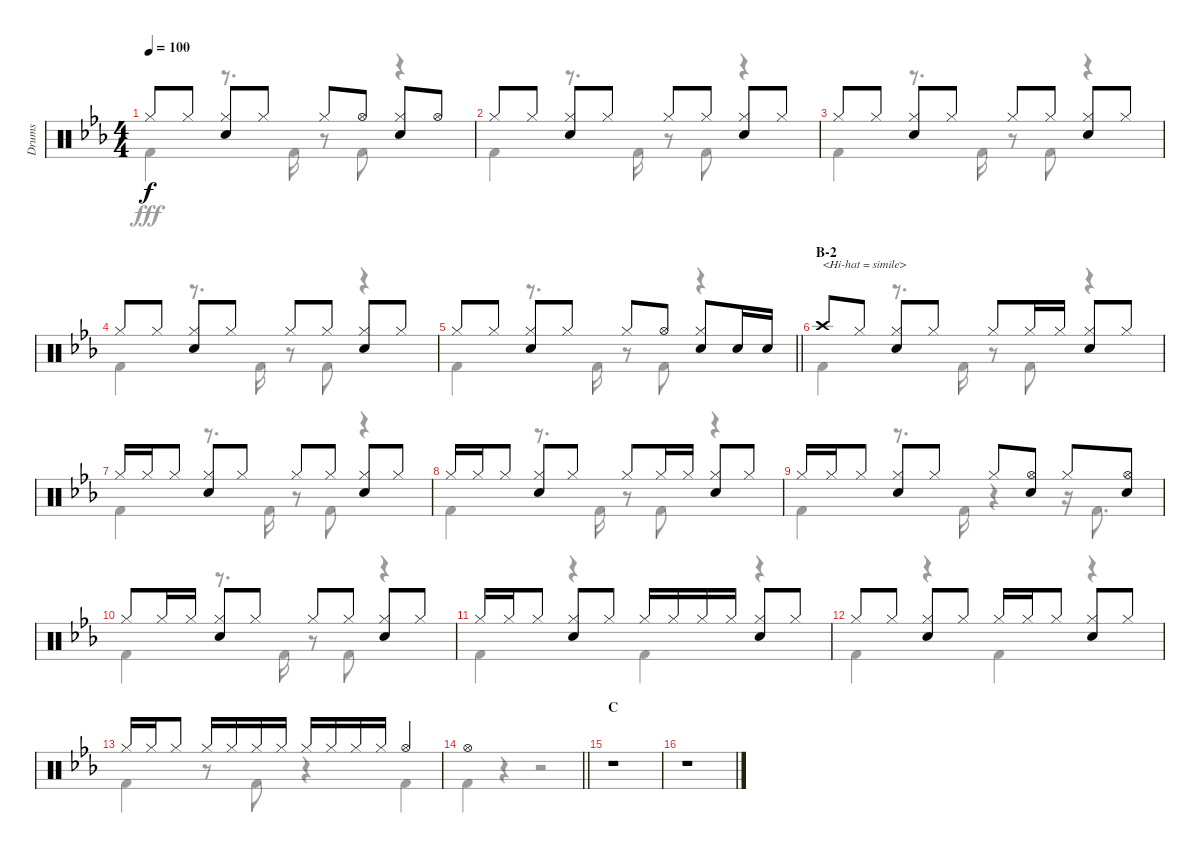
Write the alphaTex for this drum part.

\track ("Drums" "Drums") {instrument percussion}
\staff {score}
\articulation defaults
\voice
\ts (4 4)
\tempo 100
\clef neutral
\ks eb "Hi-Hat (closed)".8{dy f} "Hi-Hat (closed)".8
("Hi-Hat (closed)" "Snare (hit) 2").8 "Hi-Hat (closed)".8 "Hi-Hat (closed)".8 "Hi-Hat (open)".8 ("Hi-Hat (closed)" "Snare (hit) 2").8 "Hi-Hat (open)".8 |
"Hi-Hat (closed)".8 "Hi-Hat (closed)".8 ("Hi-Hat (closed)" "Snare (hit) 2").8 "Hi-Hat (closed)".8 "Hi-Hat (closed)".8 "Hi-Hat (closed)".8 ("Hi-Hat (closed)" "Snare (hit) 2").8 "Hi-Hat (closed)".8 |
"Hi-Hat (closed)".8 "Hi-Hat (closed)".8 ("Hi-Hat (closed)" "Snare (hit) 2").8 "Hi-Hat (closed)".8 "Hi-Hat (closed)".8 "Hi-Hat (closed)".8 ("Hi-Hat (closed)" "Snare (hit) 2").8 "Hi-Hat (closed)".8 |
"Hi-Hat (closed)".8 "Hi-Hat (closed)".8 ("Hi-Hat (closed)" "Snare (hit) 2").8 "Hi-Hat (closed)".8 "Hi-Hat (closed)".8 "Hi-Hat (closed)".8 ("Hi-Hat (closed)" "Snare (hit) 2").8 "Hi-Hat (closed)".8 |
\barLineRight lightlight "Hi-Hat (closed)".8 "Hi-Hat (closed)".8
("Hi-Hat (closed)" "Snare (hit) 2").8 "Hi-Hat (closed)".8 "Hi-Hat (closed)".8 "Hi-Hat (open)".8 ("Hi-Hat (closed)" "Snare (hit) 2").8 "Snare (hit) 2".16 "Snare (hit) 2".16 |
\section ("" "B-2")
"Crash high (hit)".8{txt "<Hi-hat = simile>"} "Hi-Hat (closed)".8 ("Hi-Hat (closed)" "Snare (hit) 2").8 "Hi-Hat (closed)".8 "Hi-Hat (closed)".8 "Hi-Hat (closed)".16 "Hi-Hat (closed)".16 ("Hi-Hat (closed)" "Snare (hit) 2").8 "Hi-Hat (closed)".8 |
"Hi-Hat (closed)".16 "Hi-Hat (closed)".16 "Hi-Hat (closed)".8 ("Hi-Hat (closed)" "Snare (hit) 2").8 "Hi-Hat (closed)".8 "Hi-Hat (closed)".8 "Hi-Hat (closed)".8 ("Hi-Hat (closed)" "Snare (hit) 2").8 "Hi-Hat (closed)".8 |
"Hi-Hat (closed)".16 "Hi-Hat (closed)".16 "Hi-Hat (closed)".8 ("Hi-Hat (closed)" "Snare (hit) 2").8 "Hi-Hat (closed)".8 "Hi-Hat (closed)".8 "Hi-Hat (closed)".16 "Hi-Hat (closed)".16 ("Hi-Hat (closed)" "Snare (hit) 2").8 "Hi-Hat (closed)".8 |
"Hi-Hat (closed)".16 "Hi-Hat (closed)".16 "Hi-Hat (closed)".8 ("Hi-Hat (closed)" "Snare (hit) 2").8 "Hi-Hat (closed)".8 "Hi-Hat (closed)".8 ("Hi-Hat (open)" "Snare (hit) 2").8 "Hi-Hat (closed)".8 ("Hi-Hat (open)" "Snare (hit) 2").8 |
"Hi-Hat (closed)".8 "Hi-Hat (closed)".16 "Hi-Hat (closed)".16 ("Hi-Hat (closed)" "Snare (hit) 2").8 "Hi-Hat (closed)".8 "Hi-Hat (closed)".8 "Hi-Hat (closed)".8 ("Hi-Hat (closed)" "Snare (hit) 2").8 "Hi-Hat (closed)".8 |
"Hi-Hat (closed)".16 "Hi-Hat (closed)".16 "Hi-Hat (closed)".8 ("Hi-Hat (closed)" "Snare (hit) 2").8 "Hi-Hat (closed)".8 "Hi-Hat (closed)".16 "Hi-Hat (closed)".16 "Hi-Hat (closed)".16 "Hi-Hat (closed)".16 ("Hi-Hat (closed)" "Snare (hit) 2").8 "Hi-Hat (closed)".8 |
"Hi-Hat (closed)".8 "Hi-Hat (closed)".8 ("Hi-Hat (closed)" "Snare (hit) 2").8 "Hi-Hat (closed)".8 "Hi-Hat (closed)".16 "Hi-Hat (closed)".16 "Hi-Hat (closed)".8 ("Hi-Hat (closed)" "Snare (hit) 2").8 "Hi-Hat (closed)".8 |
"Hi-Hat (closed)".16 "Hi-Hat (closed)".16 "Hi-Hat (closed)".8 "Hi-Hat (closed)".16 "Hi-Hat (closed)".16 "Hi-Hat (closed)".16 "Hi-Hat (closed)".16 "Hi-Hat (closed)".16 "Hi-Hat (closed)".16 "Hi-Hat (closed)".16 "Hi-Hat (closed)".16 "Hi-Hat (open)".4 |
\barLineRight lightlight "Hi-Hat (open)".1
|
\section ("" "C")
r.1 |
r.1
\voice
\clef neutral
\ottava regular
\simile none
\ks eb "Kick (hit) 2".4{dy fff}
r.8{d} "Kick (hit) 2".16 r.8 "Kick (hit) 2".8 r.4 |
"Kick (hit) 2".4 r.8{d} "Kick (hit) 2".16 r.8 "Kick (hit) 2".8 r.4 |
"Kick (hit) 2".4 r.8{d} "Kick (hit) 2".16 r.8 "Kick (hit) 2".8 r.4 |
"Kick (hit) 2".4 r.8{d} "Kick (hit) 2".16 r.8 "Kick (hit) 2".8 r.4 |
\barLineRight lightlight "Kick (hit) 2".4
r.8{d} "Kick (hit) 2".16 r.8 "Kick (hit) 2".8 r.4 |
"Kick (hit) 2".4 r.8{d} "Kick (hit) 2".16 r.8 "Kick (hit) 2".8 r.4 |
"Kick (hit) 2".4 r.8{d} "Kick (hit) 2".16 r.8 "Kick (hit) 2".8 r.4 |
"Kick (hit) 2".4 r.8{d} "Kick (hit) 2".16 r.8 "Kick (hit) 2".8 r.4 |
"Kick (hit) 2".4 r.8{d} "Kick (hit) 2".16 r.4 r.16 "Kick (hit) 2".8{d} |
"Kick (hit) 2".4 r.8{d} "Kick (hit) 2".16 r.8 "Kick (hit) 2".8 r.4 |
"Kick (hit) 2".4 r.4 "Kick (hit) 2".4 r.4 |
"Kick (hit) 2".4 r.4 "Kick (hit) 2".4 r.4 |
"Kick (hit) 2".4 r.8 "Kick (hit) 2".8 r.4 "Kick (hit) 2".4 |
\barLineRight lightlight "Kick (hit) 2".4
r.4 r.2 |
r.1 |
r.1
